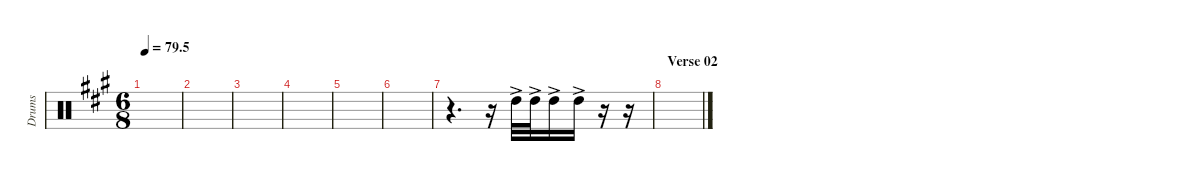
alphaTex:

\defaultSystemsLayout 4
\hideDynamics
\bracketExtendMode nobrackets
\otherSystemsTrackNameOrientation horizontal
\track ("Tom 01" "Drums") {instrument percussion}
\staff {score}
\articulation defaults
\ts (6 8)
\tempo
79.5
\accidentals auto
\clef neutral
\ottava regular
\simile none
\scale
0.333333
\ks a
|
\scale
0.333333 |
\scale
0.333333 |
\scale
0.333333 |
\scale
0.333333 |
\scale
0.333333 |
\scale
0.333333 r.4{d} r.16 "High Tom (hit)"{ac acc forcenatural}.32 "High Tom (hit)"{ac acc forcenatural}.32 "High Tom (hit)"{ac acc forcenatural}.16 "High Tom (hit)"{ac acc forcenatural}.16 r.16 r.16 |
\section ("" "Verse 02")
\scale
0.333333 |
\scale
0.333333 |
\scale
0.333333 |
\scale
0.333333 |
\scale
0.333333 |
\scale
0.333333 |
\scale
0.333333 |
\scale
0.333333 |
\scale
0.333333
